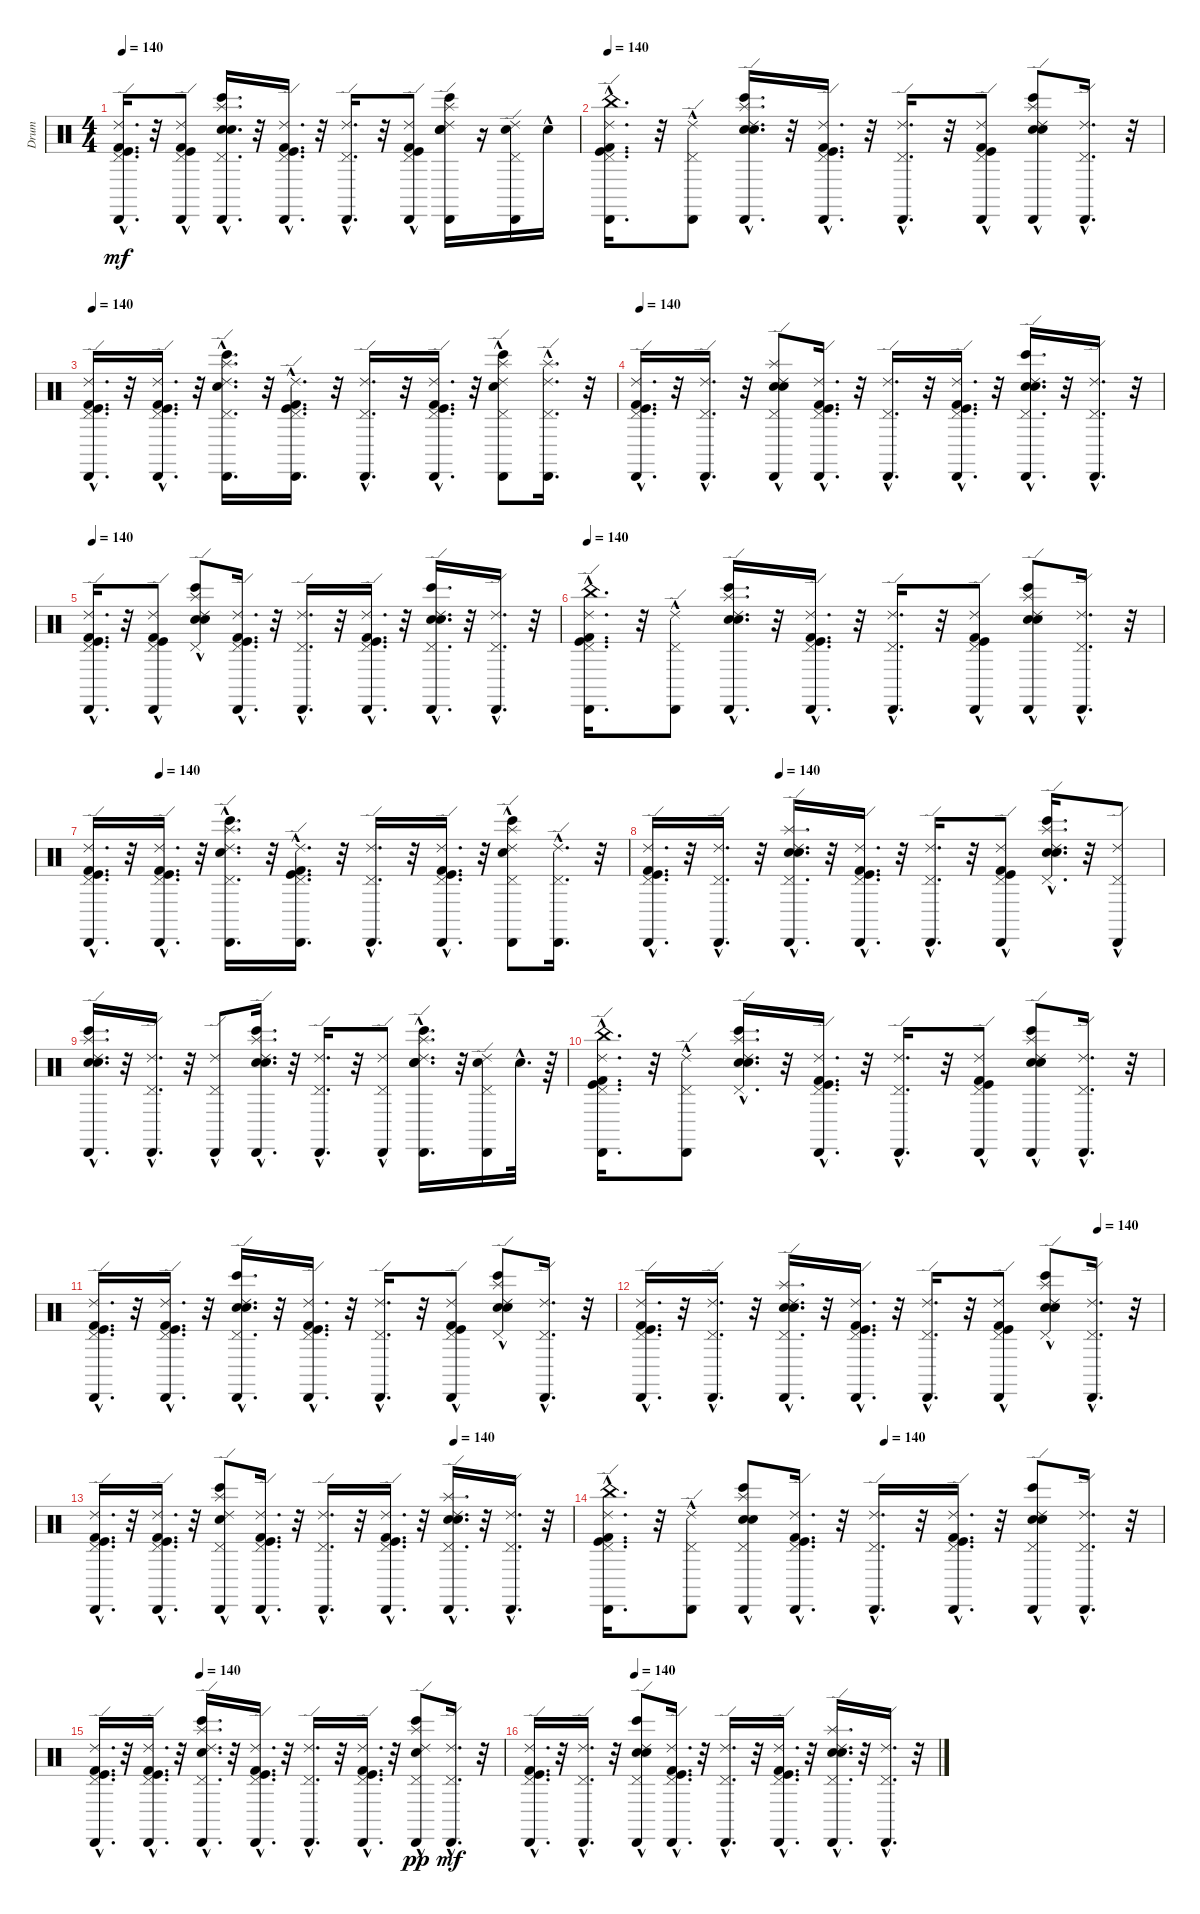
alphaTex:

\track ("Drum" "Drum") {instrument percussion}
\staff {score}
\articulation defaults
\ts (4 4)
\tempo 140
\clef neutral
\ks c
("Ride (edge) 2"{hac} "Kick (hit) 2"{hac} "Cabasa (hit)"{hac} "Kick (hit)"{hac} "Pedal Hi-Hat (hit)"{hac}).16{d dy mf} r.32 ("Cabasa (hit)"{hac} "Ride (edge) 2"{hac} "Pedal Hi-Hat (hit)"{hac} "Kick (hit)"{hac} "Kick (hit) 2"{hac}).8 ("Electric Snare (hit)"{hac} "Bongo High (hit)"{hac} "Splash (hit)"{hac} "Snare (hit) 2"{hac} "Pedal Hi-Hat (hit)"{hac} "Cabasa (hit)"{hac}).16{d} r.32 ("Ride (edge) 2"{hac} "Kick (hit) 2"{hac} "Cabasa (hit)"{hac} "Kick (hit)"{hac} "Pedal Hi-Hat (hit)"{hac}).16{d} r.32 ("Cabasa (hit)"{hac} "Ride (edge) 2"{hac} "Pedal Hi-Hat (hit)"{hac}).16{d} r.32 ("Cabasa (hit)"{hac} "Ride (edge) 2"{hac} "Kick (hit)"{hac} "Pedal Hi-Hat (hit)"{hac} "Kick (hit) 2"{hac}).8 ("Bongo High (hit)" "Electric Snare (hit)" "Cabasa (hit)" "Splash (hit)" "Snare (hit) 2" "Ride (edge) 2").16 r.16 ("Snare (hit) 2" "Cabasa (hit)" "Ride (edge) 2" "Pedal Hi-Hat (hit)").16 "Snare (hit) 2"{hac}.16 |
\tempo 140
("China (hit)"{hac} "Cabasa (hit)"{hac} "Ride (edge) 2"{hac} "Kick (hit) 2"{hac} "Kick (hit)"{hac} "Pedal Hi-Hat (hit)"{hac}).16{d} r.32 ("Cabasa (hit)"{hac} "Ride (edge) 2"{hac} "Pedal Hi-Hat (hit)"{hac}).8 ("Splash (hit)"{hac} "Bongo High (hit)"{hac} "Electric Snare (hit)"{hac} "Cabasa (hit)"{hac} "Ride (edge) 2"{hac} "Snare (hit) 2"{hac}).16{d} r.32 ("Cabasa (hit)"{hac} "Ride (edge) 2"{hac} "Kick (hit) 2"{hac} "Kick (hit)"{hac} "Pedal Hi-Hat (hit)"{hac}).16{d} r.32 ("Cabasa (hit)"{hac} "Ride (edge) 2"{hac} "Pedal Hi-Hat (hit)"{hac}).16{d} r.32 ("Cabasa (hit)"{hac} "Ride (edge) 2"{hac} "Kick (hit) 2"{hac} "Kick (hit)"{hac} "Pedal Hi-Hat (hit)"{hac}).8 ("Splash (hit)"{hac} "Bongo High (hit)"{hac} "Electric Snare (hit)"{hac} "Cabasa (hit)"{hac} "Ride (edge) 2"{hac} "Snare (hit) 2").8 ("Cabasa (hit)"{hac} "Ride (edge) 2"{hac} "Pedal Hi-Hat (hit)"{hac}).16{d} r.32 |
\tempo 140
("Cabasa (hit)"{hac} "Ride (edge) 2"{hac} "Kick (hit) 2"{hac} "Pedal Hi-Hat (hit)"{hac} "Kick (hit)"{hac}).16{d} r.32 ("Cabasa (hit)"{hac} "Ride (edge) 2"{hac} "Kick (hit) 2"{hac} "Kick (hit)"{hac} "Pedal Hi-Hat (hit)"{hac}).16{d} r.32 ("Splash (hit)"{hac} "Electric Snare (hit)"{hac} "Bongo High (hit)"{hac} "Cabasa (hit)"{hac} "Ride (edge) 2"{hac} "Pedal Hi-Hat (hit)"{hac}).16{d} r.32 ("Cabasa (hit)"{hac} "Ride (edge) 2"{hac} "Kick (hit) 2"{hac} "Pedal Hi-Hat (hit)"{hac} "Kick (hit)"{hac}).16{d} r.32 ("Cabasa (hit)"{hac} "Ride (edge) 2"{hac} "Pedal Hi-Hat (hit)"{hac}).16{d} r.32 ("Cabasa (hit)"{hac} "Ride (edge) 2"{hac} "Kick (hit) 2"{hac} "Pedal Hi-Hat (hit)"{hac} "Kick (hit)"{hac}).16{d} r.32 ("Splash (hit)"{hac} "Electric Snare (hit)"{hac} "Bongo High (hit)" "Cabasa (hit)"{hac} "Ride (edge) 2"{hac} "Pedal Hi-Hat (hit)"{hac}).8 ("Splash (hit)"{hac} "Cabasa (hit)"{hac} "Ride (edge) 2"{hac} "Pedal Hi-Hat (hit)"{hac}).16{d} r.32 |
\tempo 140
("Kick (hit) 2"{hac} "Kick (hit)"{hac} "Ride (edge) 2"{hac} "Cabasa (hit)"{hac} "Pedal Hi-Hat (hit)"{hac}).16{d} r.32 ("Cabasa (hit)"{hac} "Ride (edge) 2"{hac} "Pedal Hi-Hat (hit)"{hac}).16{d} r.32 ("Snare (hit) 2"{hac} "Splash (hit)" "Pedal Hi-Hat (hit)"{hac} "Cabasa (hit)"{hac} "Ride (edge) 2"{hac} "Electric Snare (hit)"{hac}).8 ("Kick (hit)"{hac} "Ride (edge) 2"{hac} "Cabasa (hit)"{hac} "Pedal Hi-Hat (hit)"{hac} "Kick (hit) 2"{hac}).16{d} r.32 ("Pedal Hi-Hat (hit)"{hac} "Ride (edge) 2"{hac} "Cabasa (hit)"{hac}).16{d} r.32 ("Kick (hit) 2"{hac} "Pedal Hi-Hat (hit)"{hac} "Ride (edge) 2"{hac} "Kick (hit)"{hac} "Cabasa (hit)"{hac}).16{d} r.32 ("Ride (edge) 2"{hac} "Pedal Hi-Hat (hit)"{hac} "Electric Snare (hit)"{hac} "Snare (hit) 2"{hac} "Cabasa (hit)"{hac} "Bongo High (hit)"{hac}).16{d} r.32 ("Pedal Hi-Hat (hit)"{hac} "Ride (edge) 2"{hac} "Cabasa (hit)"{hac}).16{d} r.32 |
\tempo 140
("Ride (edge) 2"{hac} "Pedal Hi-Hat (hit)"{hac} "Kick (hit) 2"{hac} "Kick (hit)"{hac} "Cabasa (hit)"{hac}).16{d} r.32 ("Pedal Hi-Hat (hit)"{hac} "Ride (edge) 2"{hac} "Cabasa (hit)"{hac} "Kick (hit)"{hac} "Kick (hit) 2"{hac}).8 ("Splash (hit)" "Snare (hit) 2"{hac} "Bongo High (hit)"{hac} "Electric Snare (hit)"{hac} "Ride (edge) 2"{hac} "Pedal Hi-Hat (hit)"{hac}).8 ("Ride (edge) 2"{hac} "Kick (hit) 2"{hac} "Pedal Hi-Hat (hit)"{hac} "Cabasa (hit)"{hac} "Kick (hit)"{hac}).16{d} r.32 ("Cabasa (hit)"{hac} "Ride (edge) 2"{hac} "Pedal Hi-Hat (hit)"{hac}).16{d} r.32 ("Kick (hit)"{hac} "Ride (edge) 2"{hac} "Cabasa (hit)"{hac} "Pedal Hi-Hat (hit)"{hac} "Kick (hit) 2"{hac}).16{d} r.32 ("Bongo High (hit)"{hac} "Electric Snare (hit)"{hac} "Ride (edge) 2"{hac} "Pedal Hi-Hat (hit)"{hac} "Cabasa (hit)"{hac} "Snare (hit) 2"{hac}).16{d} r.32 ("Cabasa (hit)"{hac} "Ride (edge) 2"{hac} "Pedal Hi-Hat (hit)"{hac}).16{d} r.32 |
\tempo 140
("China (hit)"{hac} "Cabasa (hit)"{hac} "Ride (edge) 2"{hac} "Kick (hit) 2"{hac} "Kick (hit)"{hac} "Pedal Hi-Hat (hit)"{hac}).16{d} r.32 ("Cabasa (hit)"{hac} "Ride (edge) 2"{hac} "Pedal Hi-Hat (hit)"{hac}).8 ("Splash (hit)"{hac} "Bongo High (hit)"{hac} "Electric Snare (hit)"{hac} "Cabasa (hit)"{hac} "Ride (edge) 2"{hac} "Snare (hit) 2"{hac}).16{d} r.32 ("Cabasa (hit)"{hac} "Ride (edge) 2"{hac} "Kick (hit) 2"{hac} "Kick (hit)"{hac} "Pedal Hi-Hat (hit)"{hac}).16{d} r.32 ("Cabasa (hit)"{hac} "Ride (edge) 2"{hac} "Pedal Hi-Hat (hit)"{hac}).16{d} r.32 ("Cabasa (hit)"{hac} "Ride (edge) 2"{hac} "Kick (hit) 2"{hac} "Kick (hit)"{hac} "Pedal Hi-Hat (hit)"{hac}).8 ("Splash (hit)"{hac} "Bongo High (hit)"{hac} "Electric Snare (hit)"{hac} "Cabasa (hit)"{hac} "Ride (edge) 2"{hac} "Snare (hit) 2").8 ("Cabasa (hit)"{hac} "Ride (edge) 2"{hac} "Pedal Hi-Hat (hit)"{hac}).16{d} r.32 |
\tempo (140 0.125)
("Cabasa (hit)"{hac} "Ride (edge) 2"{hac} "Kick (hit) 2"{hac} "Pedal Hi-Hat (hit)"{hac} "Kick (hit)"{hac}).16{d} r.32 ("Cabasa (hit)"{hac} "Ride (edge) 2"{hac} "Kick (hit) 2"{hac} "Kick (hit)"{hac} "Pedal Hi-Hat (hit)"{hac}).16{d} r.32 ("Splash (hit)"{hac} "Electric Snare (hit)"{hac} "Bongo High (hit)"{hac} "Cabasa (hit)"{hac} "Ride (edge) 2"{hac} "Pedal Hi-Hat (hit)"{hac}).16{d} r.32 ("Cabasa (hit)"{hac} "Ride (edge) 2"{hac} "Kick (hit) 2"{hac} "Pedal Hi-Hat (hit)"{hac} "Kick (hit)"{hac}).16{d} r.32 ("Cabasa (hit)"{hac} "Ride (edge) 2"{hac} "Pedal Hi-Hat (hit)"{hac}).16{d} r.32 ("Cabasa (hit)"{hac} "Ride (edge) 2"{hac} "Kick (hit) 2"{hac} "Pedal Hi-Hat (hit)"{hac} "Kick (hit)"{hac}).16{d} r.32 ("Splash (hit)"{hac} "Electric Snare (hit)"{hac} "Bongo High (hit)" "Cabasa (hit)"{hac} "Ride (edge) 2"{hac} "Pedal Hi-Hat (hit)"{hac}).8 ("Cabasa (hit)"{hac} "Ride (edge) 2"{hac} "Pedal Hi-Hat (hit)"{hac}).16{d} r.32 |
\tempo (140 0.25)
("Ride (edge) 2"{hac} "Kick (hit) 2"{hac} "Cabasa (hit)"{hac} "Kick (hit)"{hac} "Pedal Hi-Hat (hit)"{hac}).16{d} r.32 ("Pedal Hi-Hat (hit)"{hac} "Cabasa (hit)"{hac} "Ride (edge) 2"{hac}).16{d} r.32 ("Splash (hit)"{hac} "Pedal Hi-Hat (hit)"{hac} "Cabasa (hit)"{hac} "Snare (hit) 2"{hac} "Electric Snare (hit)"{hac} "Ride (edge) 2"{hac}).16{d} r.32 ("Ride (edge) 2"{hac} "Cabasa (hit)"{hac} "Pedal Hi-Hat (hit)"{hac} "Kick (hit) 2"{hac} "Kick (hit)"{hac}).16{d} r.32 ("Ride (edge) 2"{hac} "Cabasa (hit)"{hac} "Pedal Hi-Hat (hit)"{hac}).16{d} r.32 ("Pedal Hi-Hat (hit)"{hac} "Cabasa (hit)"{hac} "Ride (edge) 2"{hac} "Kick (hit)"{hac} "Kick (hit) 2"{hac}).8 ("Bongo High (hit)"{hac} "Ride (edge) 2"{hac} "Splash (hit)"{hac} "Electric Snare (hit)"{hac} "Snare (hit) 2"{hac} "Pedal Hi-Hat (hit)"{hac}).16{d} r.32 ("Cabasa (hit)"{hac} "Ride (edge) 2"{hac} "Pedal Hi-Hat (hit)"{hac}).8 |
("Bongo High (hit)"{hac} "Splash (hit)"{hac} "Snare (hit) 2"{hac} "Electric Snare (hit)"{hac} "Ride (edge) 2"{hac} "Cabasa (hit)"{hac}).16{d} r.32 ("Cabasa (hit)"{hac} "Ride (edge) 2"{hac} "Pedal Hi-Hat (hit)"{hac}).16{d} r.32 ("Pedal Hi-Hat (hit)"{hac} "Cabasa (hit)"{hac} "Ride (edge) 2"{hac}).8 ("Bongo High (hit)"{hac} "Splash (hit)"{hac} "Snare (hit) 2"{hac} "Electric Snare (hit)"{hac} "Ride (edge) 2"{hac} "Cabasa (hit)"{hac}).16{d} r.32 ("Cabasa (hit)"{hac} "Ride (edge) 2"{hac} "Pedal Hi-Hat (hit)"{hac}).16{d} r.32 ("Cabasa (hit)"{hac} "Ride (edge) 2"{hac} "Pedal Hi-Hat (hit)"{hac}).8 ("Snare (hit) 2"{hac} "Electric Snare (hit)"{hac} "Bongo High (hit)"{hac} "Cabasa (hit)"{hac} "Splash (hit)"{hac} "Ride (edge) 2"{hac}).16{d} r.32 ("Snare (hit) 2" "Cabasa (hit)" "Ride (edge) 2" "Pedal Hi-Hat (hit)").16 "Snare (hit) 2"{hac}.32{d} r.64 |
("Ride (edge) 2"{hac} "Kick (hit) 2"{hac} "Cabasa (hit)"{hac} "China (hit)"{hac} "Pedal Hi-Hat (hit)"{hac} "Kick (hit)"{hac}).16{d} r.32 ("Cabasa (hit)"{hac} "Pedal Hi-Hat (hit)"{hac} "Ride (edge) 2"{hac}).8 ("Ride (edge) 2"{hac} "Electric Snare (hit)"{hac} "Bongo High (hit)"{hac} "Pedal Hi-Hat (hit)"{hac} "Splash (hit)"{hac} "Snare (hit) 2"{hac}).16{d} r.32 ("Ride (edge) 2"{hac} "Pedal Hi-Hat (hit)"{hac} "Kick (hit) 2"{hac} "Kick (hit)"{hac} "Cabasa (hit)"{hac}).16{d} r.32 ("Ride (edge) 2"{hac} "Pedal Hi-Hat (hit)"{hac} "Cabasa (hit)"{hac}).16{d} r.32 ("Pedal Hi-Hat (hit)"{hac} "Ride (edge) 2"{hac} "Kick (hit)"{hac} "Cabasa (hit)"{hac} "Kick (hit) 2"{hac}).8 ("Cabasa (hit)"{hac} "Bongo High (hit)"{hac} "Splash (hit)" "Electric Snare (hit)"{hac} "Snare (hit) 2"{hac} "Ride (edge) 2"{hac}).8 ("Cabasa (hit)"{hac} "Pedal Hi-Hat (hit)"{hac} "Ride (edge) 2"{hac}).16{d} r.32 |
("Kick (hit) 2"{hac} "Pedal Hi-Hat (hit)"{hac} "Kick (hit)"{hac} "Cabasa (hit)"{hac} "Ride (edge) 2"{hac}).16{d} r.32 ("Kick (hit)"{hac} "Ride (edge) 2"{hac} "Cabasa (hit)"{hac} "Kick (hit) 2"{hac} "Pedal Hi-Hat (hit)"{hac}).16{d} r.32 ("Electric Snare (hit)"{hac} "Bongo High (hit)"{hac} "Snare (hit) 2"{hac} "Ride (edge) 2"{hac} "Pedal Hi-Hat (hit)"{hac} "Cabasa (hit)"{hac}).16{d} r.32 ("Pedal Hi-Hat (hit)"{hac} "Ride (edge) 2"{hac} "Kick (hit)"{hac} "Kick (hit) 2"{hac} "Cabasa (hit)"{hac}).16{d} r.32 ("Ride (edge) 2"{hac} "Cabasa (hit)"{hac} "Pedal Hi-Hat (hit)"{hac}).16{d} r.32 ("Pedal Hi-Hat (hit)"{hac} "Kick (hit) 2"{hac} "Kick (hit)"{hac} "Ride (edge) 2"{hac} "Cabasa (hit)"{hac}).8 ("Electric Snare (hit)"{hac} "Splash (hit)"{hac} "Bongo High (hit)" "Snare (hit) 2"{hac} "Ride (edge) 2"{hac} "Pedal Hi-Hat (hit)"{hac}).8 ("Cabasa (hit)"{hac} "Ride (edge) 2"{hac} "Pedal Hi-Hat (hit)"{hac}).16{d} r.32 |
\tempo (140 0.875)
("Ride (edge) 2"{hac} "Kick (hit) 2"{hac} "Cabasa (hit)"{hac} "Kick (hit)"{hac} "Pedal Hi-Hat (hit)"{hac}).16{d} r.32 ("Pedal Hi-Hat (hit)"{hac} "Cabasa (hit)"{hac} "Ride (edge) 2"{hac}).16{d} r.32 ("Splash (hit)"{hac} "Pedal Hi-Hat (hit)"{hac} "Cabasa (hit)"{hac} "Snare (hit) 2"{hac} "Electric Snare (hit)"{hac} "Ride (edge) 2"{hac}).16{d} r.32 ("Ride (edge) 2"{hac} "Cabasa (hit)"{hac} "Pedal Hi-Hat (hit)"{hac} "Kick (hit) 2"{hac} "Kick (hit)"{hac}).16{d} r.32 ("Ride (edge) 2"{hac} "Cabasa (hit)"{hac} "Pedal Hi-Hat (hit)"{hac}).16{d} r.32 ("Pedal Hi-Hat (hit)"{hac} "Cabasa (hit)"{hac} "Ride (edge) 2"{hac} "Kick (hit)"{hac} "Kick (hit) 2"{hac}).8 ("Bongo High (hit)"{hac} "Ride (edge) 2"{hac} "Splash (hit)"{hac} "Electric Snare (hit)" "Snare (hit) 2"{hac} "Pedal Hi-Hat (hit)"{hac}).8 ("Cabasa (hit)"{hac} "Ride (edge) 2"{hac} "Pedal Hi-Hat (hit)"{hac}).16{d} r.32 |
\tempo (140 0.75)
("Pedal Hi-Hat (hit)"{hac} "Kick (hit)"{hac} "Cabasa (hit)"{hac} "Kick (hit) 2"{hac} "Ride (edge) 2"{hac}).16{d} r.32 ("Kick (hit) 2"{hac} "Kick (hit)"{hac} "Pedal Hi-Hat (hit)"{hac} "Ride (edge) 2"{hac} "Cabasa (hit)"{hac}).16{d} r.32 ("Ride (edge) 2"{hac} "Cabasa (hit)"{hac} "Pedal Hi-Hat (hit)"{hac} "Snare (hit) 2"{hac} "Splash (hit)"{hac} "Bongo High (hit)").8 ("Pedal Hi-Hat (hit)"{hac} "Kick (hit)"{hac} "Cabasa (hit)"{hac} "Kick (hit) 2"{hac} "Ride (edge) 2"{hac}).16{d} r.32 ("Pedal Hi-Hat (hit)"{hac} "Ride (edge) 2"{hac} "Cabasa (hit)"{hac}).16{d} r.32 ("Kick (hit) 2"{hac} "Pedal Hi-Hat (hit)"{hac} "Kick (hit)"{hac} "Ride (edge) 2"{hac} "Cabasa (hit)"{hac}).16{d} r.32 ("Pedal Hi-Hat (hit)"{hac} "Ride (edge) 2"{hac} "Snare (hit) 2"{hac} "Splash (hit)"{hac} "Cabasa (hit)"{hac} "Electric Snare (hit)"{hac}).16{d} r.32 ("Pedal Hi-Hat (hit)"{hac} "Ride (edge) 2"{hac} "Cabasa (hit)"{hac}).16{d} r.32 |
\tempo (140 0.5)
("China (hit)"{hac} "Kick (hit)"{hac} "Cabasa (hit)"{hac} "Pedal Hi-Hat (hit)"{hac} "Ride (edge) 2"{hac} "Kick (hit) 2"{hac}).16{d} r.32 ("Ride (edge) 2"{hac} "Cabasa (hit)"{hac} "Pedal Hi-Hat (hit)"{hac}).8 ("Cabasa (hit)"{hac} "Snare (hit) 2"{hac} "Splash (hit)" "Bongo High (hit)"{hac} "Electric Snare (hit)"{hac} "Pedal Hi-Hat (hit)"{hac}).8 ("Pedal Hi-Hat (hit)"{hac} "Kick (hit)"{hac} "Ride (edge) 2"{hac} "Kick (hit) 2"{hac} "Cabasa (hit)"{hac}).16{d} r.32 ("Pedal Hi-Hat (hit)"{hac} "Ride (edge) 2"{hac} "Cabasa (hit)"{hac}).16{d} r.32 ("Kick (hit)"{hac} "Kick (hit) 2"{hac} "Cabasa (hit)"{hac} "Pedal Hi-Hat (hit)"{hac} "Ride (edge) 2"{hac}).16{d} r.32 ("Electric Snare (hit)" "Pedal Hi-Hat (hit)"{hac} "Ride (edge) 2"{hac} "Snare (hit) 2"{hac} "Cabasa (hit)"{hac} "Bongo High (hit)"{hac}).8 ("Pedal Hi-Hat (hit)"{hac} "Ride (edge) 2"{hac} "Cabasa (hit)"{hac}).16{d} r.32 |
\tempo (140 0.25)
("Ride (edge) 2"{hac} "Cabasa (hit)"{hac} "Kick (hit)"{hac} "Pedal Hi-Hat (hit)"{hac} "Kick (hit) 2"{hac}).16{d} r.32 ("Pedal Hi-Hat (hit)"{hac} "Kick (hit) 2"{hac} "Cabasa (hit)"{hac} "Ride (edge) 2"{hac} "Kick (hit)"{hac}).16{d} r.32 ("Splash (hit)"{hac} "Cabasa (hit)"{hac} "Pedal Hi-Hat (hit)"{hac} "Ride (edge) 2"{hac} "Snare (hit) 2"{hac} "Bongo High (hit)"{hac}).16{d} r.32 ("Cabasa (hit)"{hac} "Kick (hit) 2"{hac} "Kick (hit)"{hac} "Ride (edge) 2"{hac} "Pedal Hi-Hat (hit)"{hac}).16{d} r.32 ("Pedal Hi-Hat (hit)"{hac} "Cabasa (hit)"{hac} "Ride (edge) 2"{hac}).16{d} r.32 ("Cabasa (hit)"{hac} "Ride (edge) 2"{hac} "Kick (hit)"{hac} "Kick (hit) 2"{hac} "Pedal Hi-Hat (hit)"{hac}).16{d} r.32 ("Cabasa (hit)"{hac} "Pedal Hi-Hat (hit)"{hac} "Ride (edge) 2"{hac} "Snare (hit) 2"{hac} "Bongo High (hit)"{hac} "Splash (hit)").8{dy pp} ("Pedal Hi-Hat (hit)"{hac} "Ride (edge) 2"{hac} "Cabasa (hit)"{hac}).16{d dy mf} r.32 |
\tempo (140 0.25)
("Pedal Hi-Hat (hit)"{hac} "Kick (hit)"{hac} "Cabasa (hit)"{hac} "Kick (hit) 2"{hac} "Ride (edge) 2"{hac}).16{d} r.32 ("Ride (edge) 2"{hac} "Cabasa (hit)"{hac} "Pedal Hi-Hat (hit)"{hac}).16{d} r.32 ("Bongo High (hit)" "Ride (edge) 2"{hac} "Electric Snare (hit)"{hac} "Snare (hit) 2"{hac} "Cabasa (hit)"{hac} "Pedal Hi-Hat (hit)"{hac}).8 ("Kick (hit)"{hac} "Kick (hit) 2"{hac} "Pedal Hi-Hat (hit)"{hac} "Cabasa (hit)"{hac} "Ride (edge) 2"{hac}).16{d} r.32 ("Pedal Hi-Hat (hit)"{hac} "Cabasa (hit)"{hac} "Ride (edge) 2"{hac}).16{d} r.32 ("Kick (hit) 2"{hac} "Kick (hit)"{hac} "Ride (edge) 2"{hac} "Cabasa (hit)"{hac} "Pedal Hi-Hat (hit)"{hac}).16{d} r.32 ("Cabasa (hit)"{hac} "Pedal Hi-Hat (hit)"{hac} "Snare (hit) 2"{hac} "Electric Snare (hit)"{hac} "Splash (hit)"{hac} "Ride (edge) 2"{hac}).16{d} r.32 ("Pedal Hi-Hat (hit)"{hac} "Ride (edge) 2"{hac} "Cabasa (hit)"{hac}).16{d} r.32
